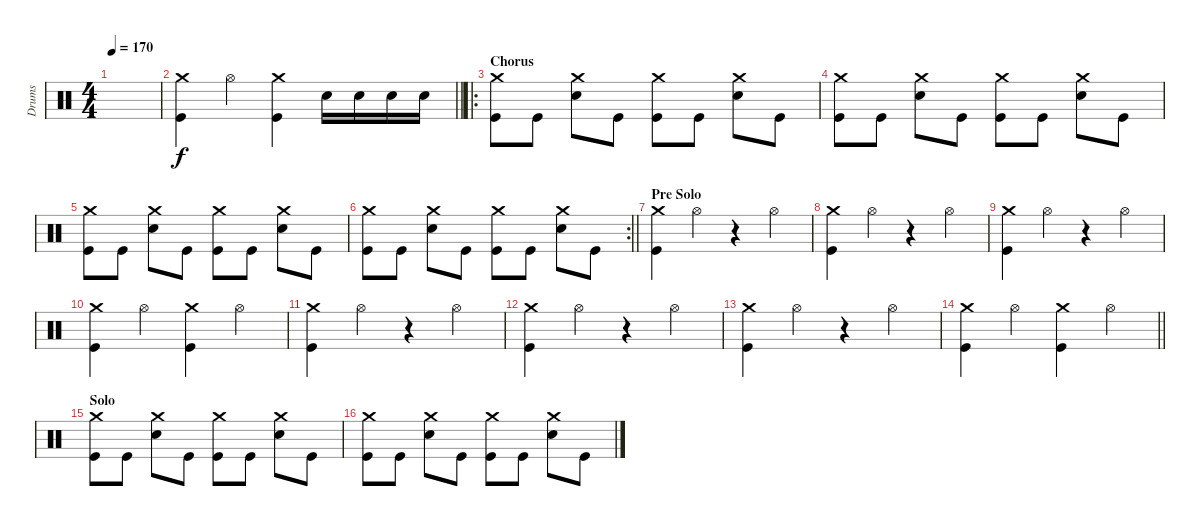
\track ("Drums" "Drums") {instrument percussion}
\staff {score}
\articulation defaults
\ts (4 4)
\tempo 170
\clef neutral
\ks c
|
\barLineRight lightlight
("Crash medium (hit)" "Kick (hit)").4 "Hi-Hat (open)".4 ("Crash medium (hit)" "Kick (hit)").4 "Snare (hit) 2".16 "Snare (hit) 2".16 "Snare (hit) 2".16 "Snare (hit) 2".16 |
\ro
\section ("" "Chorus")
("Crash medium (hit)" "Kick (hit)").8 "Kick (hit)".8 ("Crash medium (hit)" "Snare (hit) 2").8 "Kick (hit)".8 ("Crash medium (hit)" "Kick (hit)").8 "Kick (hit)".8 ("Crash medium (hit)" "Snare (hit) 2").8 "Kick (hit)".8 |
("Crash medium (hit)" "Kick (hit)").8 "Kick (hit)".8 ("Crash medium (hit)" "Snare (hit) 2").8 "Kick (hit)".8 ("Crash medium (hit)" "Kick (hit)").8 "Kick (hit)".8 ("Crash medium (hit)" "Snare (hit) 2").8 "Kick (hit)".8 |
("Crash medium (hit)" "Kick (hit)").8 "Kick (hit)".8 ("Crash medium (hit)" "Snare (hit) 2").8 "Kick (hit)".8 ("Crash medium (hit)" "Kick (hit)").8 "Kick (hit)".8 ("Crash medium (hit)" "Snare (hit) 2").8 "Kick (hit)".8 |
\rc 2
\barLineRight lightlight
("Crash medium (hit)" "Kick (hit)").8 "Kick (hit)".8 ("Crash medium (hit)" "Snare (hit) 2").8 "Kick (hit)".8 ("Crash medium (hit)" "Kick (hit)").8 "Kick (hit)".8 ("Crash medium (hit)" "Snare (hit) 2").8 "Kick (hit)".8 |
\section ("" "Pre Solo")
("Crash medium (hit)" "Kick (hit)").4 "Hi-Hat (open)".4 r.4 "Hi-Hat (open)".4 |
("Crash medium (hit)" "Kick (hit)").4 "Hi-Hat (open)".4 r.4 "Hi-Hat (open)".4 |
("Crash medium (hit)" "Kick (hit)").4 "Hi-Hat (open)".4 r.4 "Hi-Hat (open)".4 |
("Crash medium (hit)" "Kick (hit)").4 "Hi-Hat (open)".4 ("Crash medium (hit)" "Kick (hit)").4 "Hi-Hat (open)".4 |
("Crash medium (hit)" "Kick (hit)").4 "Hi-Hat (open)".4 r.4 "Hi-Hat (open)".4 |
("Crash medium (hit)" "Kick (hit)").4 "Hi-Hat (open)".4 r.4 "Hi-Hat (open)".4 |
("Crash medium (hit)" "Kick (hit)").4 "Hi-Hat (open)".4 r.4 "Hi-Hat (open)".4 |
\barLineRight lightlight
("Crash medium (hit)" "Kick (hit)").4 "Hi-Hat (open)".4 ("Crash medium (hit)" "Kick (hit)").4 "Hi-Hat (open)".4 |
\section ("" "Solo")
("Crash medium (hit)" "Kick (hit)").8 "Kick (hit)".8 ("Crash medium (hit)" "Snare (hit) 2").8 "Kick (hit)".8 ("Crash medium (hit)" "Kick (hit)").8 "Kick (hit)".8 ("Crash medium (hit)" "Snare (hit) 2").8 "Kick (hit)".8 |
("Crash medium (hit)" "Kick (hit)").8 "Kick (hit)".8 ("Crash medium (hit)" "Snare (hit) 2").8 "Kick (hit)".8 ("Crash medium (hit)" "Kick (hit)").8 "Kick (hit)".8 ("Crash medium (hit)" "Snare (hit) 2").8 "Kick (hit)".8
